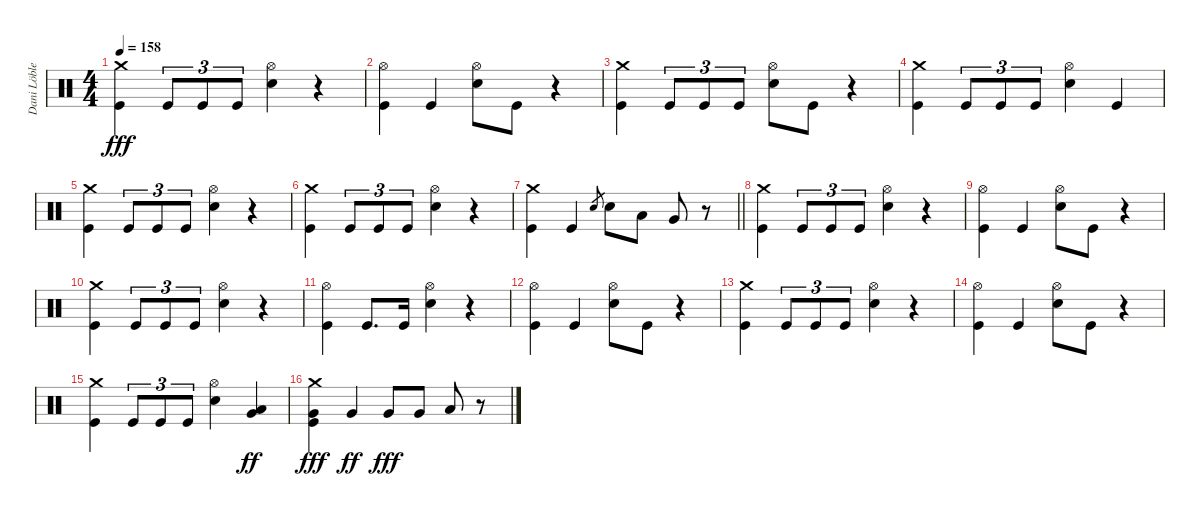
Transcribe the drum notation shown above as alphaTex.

\track ("Dani Löble" "Dani Löble") {instrument percussion}
\staff {score}
\articulation defaults
\ts (4 4)
\tempo 158
\clef neutral
\ks c
("Crash medium (hit)" "Kick (hit)").4{dy fff} "Kick (hit)".8{tu (3 2)} "Kick (hit)".8{tu (3 2)} "Kick (hit)".8{tu (3 2)} ("Hi-Hat (open)" "Electric Snare (hit)").4 r.4 |
("Hi-Hat (open)" "Kick (hit)").4 "Kick (hit)".4 ("Hi-Hat (open)" "Electric Snare (hit)").8 "Kick (hit)".8 r.4 |
("Crash medium (hit)" "Kick (hit)").4 "Kick (hit)".8{tu (3 2)} "Kick (hit)".8{tu (3 2)} "Kick (hit)".8{tu (3 2)} ("Hi-Hat (open)" "Electric Snare (hit)").8 "Kick (hit)".8 r.4 |
("Crash medium (hit)" "Kick (hit)").4 "Kick (hit)".8{tu (3 2)} "Kick (hit)".8{tu (3 2)} "Kick (hit)".8{tu (3 2)} ("Hi-Hat (open)" "Electric Snare (hit)").4 "Kick (hit)".4 |
("Crash medium (hit)" "Kick (hit)").4 "Kick (hit)".8{tu (3 2)} "Kick (hit)".8{tu (3 2)} "Kick (hit)".8{tu (3 2)} ("Hi-Hat (open)" "Electric Snare (hit)").4 r.4 |
("Crash medium (hit)" "Kick (hit)").4 "Kick (hit)".8{tu (3 2)} "Kick (hit)".8{tu (3 2)} "Kick (hit)".8{tu (3 2)} ("Hi-Hat (open)" "Electric Snare (hit)").4 r.4 |
\barLineRight lightlight
("Crash medium (hit)" "Kick (hit)").4 "Kick (hit)".4 "Electric Snare (hit)".8{gr} "Electric Snare (hit)".8 "Low Tom (hit)".8 "Very Low Tom (hit)".8 r.8 |
\section ("" "")
("Crash medium (hit)" "Kick (hit)").4 "Kick (hit)".8{tu (3 2)} "Kick (hit)".8{tu (3 2)} "Kick (hit)".8{tu (3 2)} ("Hi-Hat (open)" "Electric Snare (hit)").4 r.4 |
("Hi-Hat (open)" "Kick (hit)").4 "Kick (hit)".4 ("Hi-Hat (open)" "Electric Snare (hit)").8 "Kick (hit)".8 r.4 |
("Crash medium (hit)" "Kick (hit)").4 "Kick (hit)".8{tu (3 2)} "Kick (hit)".8{tu (3 2)} "Kick (hit)".8{tu (3 2)} ("Hi-Hat (open)" "Electric Snare (hit)").4 r.4 |
("Hi-Hat (open)" "Kick (hit)").4 "Kick (hit)".8{d} "Kick (hit)".16 ("Hi-Hat (open)" "Electric Snare (hit)").4 r.4 |
("Hi-Hat (open)" "Kick (hit)").4 "Kick (hit)".4 ("Hi-Hat (open)" "Electric Snare (hit)").8 "Kick (hit)".8 r.4 |
("Crash medium (hit)" "Kick (hit)").4 "Kick (hit)".8{tu (3 2)} "Kick (hit)".8{tu (3 2)} "Kick (hit)".8{tu (3 2)} ("Hi-Hat (open)" "Electric Snare (hit)").4 r.4 |
("Hi-Hat (open)" "Kick (hit)").4 "Kick (hit)".4 ("Hi-Hat (open)" "Electric Snare (hit)").8 "Kick (hit)".8 r.4 |
("Crash medium (hit)" "Kick (hit)").4 "Kick (hit)".8{tu (3 2)} "Kick (hit)".8{tu (3 2)} "Kick (hit)".8{tu (3 2)} ("Hi-Hat (open)" "Electric Snare (hit)").4 ("Very Low Tom (hit)" "Low Floor Tom (hit)").4{dy ff} |
("Crash medium (hit)" "Very Low Tom (hit)" "Kick (hit)").4{dy fff} "Very Low Tom (hit)".4{dy ff} "Very Low Tom (hit)".8{dy fff} "Very Low Tom (hit)".8 "Low Floor Tom (hit)".8 r.8
